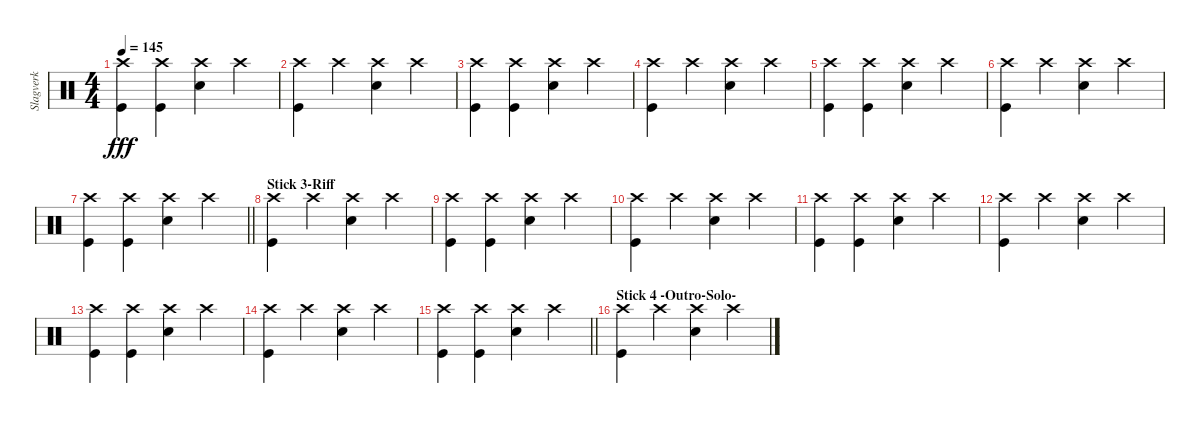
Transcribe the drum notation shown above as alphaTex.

\track ("Slagverk" "Slagverk") {instrument percussion}
\staff {score}
\articulation defaults
\ts (4 4)
\tempo 145
\clef neutral
\ks c
("Crash high (hit)" "Kick (hit)").4{dy fff} ("Crash high (hit)" "Kick (hit)").4 ("Crash high (hit)" "Snare (hit) 2").4 "Crash high (hit)".4 |
("Crash high (hit)" "Kick (hit)").4 "Crash high (hit)".4 ("Crash high (hit)" "Snare (hit) 2").4 "Crash high (hit)".4 |
("Crash high (hit)" "Kick (hit)").4 ("Crash high (hit)" "Kick (hit)").4 ("Crash high (hit)" "Snare (hit) 2").4 "Crash high (hit)".4 |
("Crash high (hit)" "Kick (hit)").4 "Crash high (hit)".4 ("Crash high (hit)" "Snare (hit) 2").4 "Crash high (hit)".4 |
("Crash high (hit)" "Kick (hit)").4 ("Crash high (hit)" "Kick (hit)").4 ("Crash high (hit)" "Snare (hit) 2").4 "Crash high (hit)".4 |
("Crash high (hit)" "Kick (hit)").4 "Crash high (hit)".4 ("Crash high (hit)" "Snare (hit) 2").4 "Crash high (hit)".4 |
\barLineRight lightlight
("Crash high (hit)" "Kick (hit)").4 ("Crash high (hit)" "Kick (hit)").4 ("Crash high (hit)" "Snare (hit) 2").4 "Crash high (hit)".4 |
\section ("" "Stick 3-Riff")
("Crash high (hit)" "Kick (hit)").4 "Crash high (hit)".4 ("Crash high (hit)" "Snare (hit) 2").4 "Crash high (hit)".4 |
("Crash high (hit)" "Kick (hit)").4 ("Crash high (hit)" "Kick (hit)").4 ("Crash high (hit)" "Snare (hit) 2").4 "Crash high (hit)".4 |
("Crash high (hit)" "Kick (hit)").4 "Crash high (hit)".4 ("Crash high (hit)" "Snare (hit) 2").4 "Crash high (hit)".4 |
("Crash high (hit)" "Kick (hit)").4 ("Crash high (hit)" "Kick (hit)").4 ("Crash high (hit)" "Snare (hit) 2").4 "Crash high (hit)".4 |
("Crash high (hit)" "Kick (hit)").4 "Crash high (hit)".4 ("Crash high (hit)" "Snare (hit) 2").4 "Crash high (hit)".4 |
("Crash high (hit)" "Kick (hit)").4 ("Crash high (hit)" "Kick (hit)").4 ("Crash high (hit)" "Snare (hit) 2").4 "Crash high (hit)".4 |
("Crash high (hit)" "Kick (hit)").4 "Crash high (hit)".4 ("Crash high (hit)" "Snare (hit) 2").4 "Crash high (hit)".4 |
\barLineRight lightlight
("Crash high (hit)" "Kick (hit)").4 ("Crash high (hit)" "Kick (hit)").4 ("Crash high (hit)" "Snare (hit) 2").4 "Crash high (hit)".4 |
\section ("" "Stick 4 -Outro-Solo-")
("Crash high (hit)" "Kick (hit)").4 "Crash high (hit)".4 ("Crash high (hit)" "Snare (hit) 2").4 "Crash high (hit)".4
